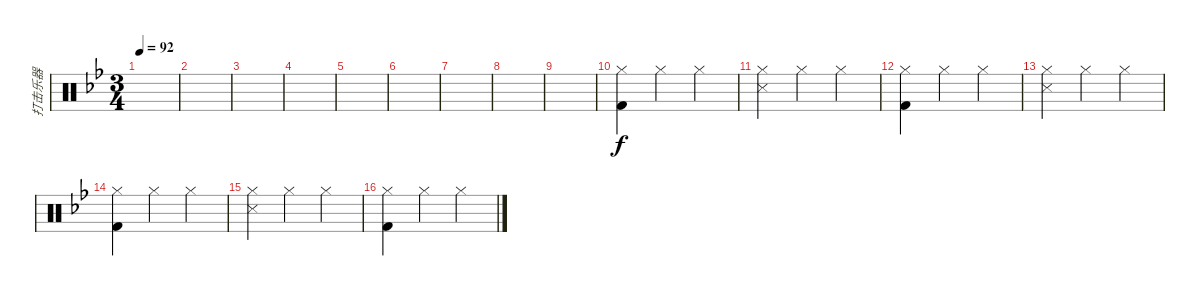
\track ("打击乐器" "打击乐器") {instrument percussion}
\staff {score}
\articulation defaults
\ts (3 4)
\tempo 92
\clef neutral
\ks bb
|
|
|
|
|
|
|
|
|
("Hi-Hat (closed)" "Kick (hit) 2").4 "Hi-Hat (closed)".4 "Hi-Hat (closed)".4 |
("Hi-Hat (closed)" "Snare (side stick) 3").4 "Hi-Hat (closed)".4 "Hi-Hat (closed)".4 |
("Hi-Hat (closed)" "Kick (hit) 2").4 "Hi-Hat (closed)".4 "Hi-Hat (closed)".4 |
("Hi-Hat (closed)" "Snare (side stick) 3").4 "Hi-Hat (closed)".4 "Hi-Hat (closed)".4 |
("Hi-Hat (closed)" "Kick (hit) 2").4 "Hi-Hat (closed)".4 "Hi-Hat (closed)".4 |
("Hi-Hat (closed)" "Snare (side stick) 3").4 "Hi-Hat (closed)".4 "Hi-Hat (closed)".4 |
("Hi-Hat (closed)" "Kick (hit) 2").4 "Hi-Hat (closed)".4 "Hi-Hat (closed)".4
